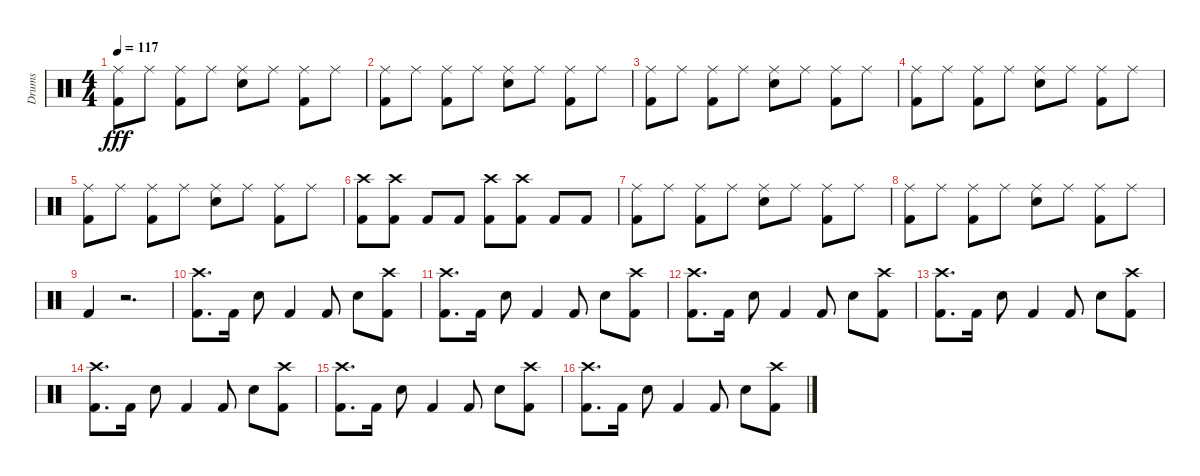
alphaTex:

\track ("Drums" "Drums") {instrument percussion}
\staff {score}
\articulation defaults
\ts (4 4)
\tempo 117
\clef neutral
\ks c
("Ride (middle)" "Kick (hit) 2").8{dy fff} "Ride (middle)".8 ("Ride (middle)" "Kick (hit) 2").8 "Ride (middle)".8 ("Ride (middle)" "Snare (hit) 2").8 "Ride (middle)".8 ("Ride (middle)" "Kick (hit) 2").8 "Ride (middle)".8 |
("Ride (middle)" "Kick (hit) 2").8 "Ride (middle)".8 ("Ride (middle)" "Kick (hit) 2").8 "Ride (middle)".8 ("Ride (middle)" "Snare (hit) 2").8 "Ride (middle)".8 ("Ride (middle)" "Kick (hit) 2").8 "Ride (middle)".8 |
("Ride (middle)" "Kick (hit) 2").8 "Ride (middle)".8 ("Ride (middle)" "Kick (hit) 2").8 "Ride (middle)".8 ("Ride (middle)" "Snare (hit) 2").8 "Ride (middle)".8 ("Ride (middle)" "Kick (hit) 2").8 "Ride (middle)".8 |
("Ride (middle)" "Kick (hit) 2").8 "Ride (middle)".8 ("Ride (middle)" "Kick (hit) 2").8 "Ride (middle)".8 ("Ride (middle)" "Snare (hit) 2").8 "Ride (middle)".8 ("Ride (middle)" "Kick (hit) 2").8 "Ride (middle)".8 |
("Ride (middle)" "Kick (hit) 2").8 "Ride (middle)".8 ("Ride (middle)" "Kick (hit) 2").8 "Ride (middle)".8 ("Ride (middle)" "Snare (hit) 2").8 "Ride (middle)".8 ("Ride (middle)" "Kick (hit) 2").8 "Ride (middle)".8 |
("Crash high (hit)" "Kick (hit) 2").8 ("Crash high (hit)" "Kick (hit) 2").8 "Kick (hit) 2".8 "Kick (hit) 2".8 ("Crash high (hit)" "Kick (hit) 2").8 ("Crash high (hit)" "Kick (hit) 2").8 "Kick (hit) 2".8 "Kick (hit) 2".8 |
("Ride (middle)" "Kick (hit) 2").8 "Ride (middle)".8 ("Ride (middle)" "Kick (hit) 2").8 "Ride (middle)".8 ("Ride (middle)" "Snare (hit) 2").8 "Ride (middle)".8 ("Ride (middle)" "Kick (hit) 2").8 "Ride (middle)".8 |
("Ride (middle)" "Kick (hit) 2").8 "Ride (middle)".8 ("Ride (middle)" "Kick (hit) 2").8 "Ride (middle)".8 ("Ride (middle)" "Snare (hit) 2").8 "Ride (middle)".8 ("Ride (middle)" "Kick (hit) 2").8 "Ride (middle)".8 |
"Kick (hit) 2".4 r.2{d} |
("Crash high (hit)" "Kick (hit) 2").8{d} "Kick (hit) 2".16 "Snare (hit) 2".8 "Kick (hit) 2".4 "Kick (hit) 2".8 "Snare (hit) 2".8 ("Crash high (hit)" "Kick (hit) 2").8 |
("Crash high (hit)" "Kick (hit) 2").8{d} "Kick (hit) 2".16 "Snare (hit) 2".8 "Kick (hit) 2".4 "Kick (hit) 2".8 "Snare (hit) 2".8 ("Crash high (hit)" "Kick (hit) 2").8 |
("Crash high (hit)" "Kick (hit) 2").8{d} "Kick (hit) 2".16 "Snare (hit) 2".8 "Kick (hit) 2".4 "Kick (hit) 2".8 "Snare (hit) 2".8 ("Crash high (hit)" "Kick (hit) 2").8 |
("Crash high (hit)" "Kick (hit) 2").8{d} "Kick (hit) 2".16 "Snare (hit) 2".8 "Kick (hit) 2".4 "Kick (hit) 2".8 "Snare (hit) 2".8 ("Crash high (hit)" "Kick (hit) 2").8 |
("Crash high (hit)" "Kick (hit) 2").8{d} "Kick (hit) 2".16 "Snare (hit) 2".8 "Kick (hit) 2".4 "Kick (hit) 2".8 "Snare (hit) 2".8 ("Crash high (hit)" "Kick (hit) 2").8 |
("Crash high (hit)" "Kick (hit) 2").8{d} "Kick (hit) 2".16 "Snare (hit) 2".8 "Kick (hit) 2".4 "Kick (hit) 2".8 "Snare (hit) 2".8 ("Crash high (hit)" "Kick (hit) 2").8 |
("Crash high (hit)" "Kick (hit) 2").8{d} "Kick (hit) 2".16 "Snare (hit) 2".8 "Kick (hit) 2".4 "Kick (hit) 2".8 "Snare (hit) 2".8 ("Crash high (hit)" "Kick (hit) 2").8
